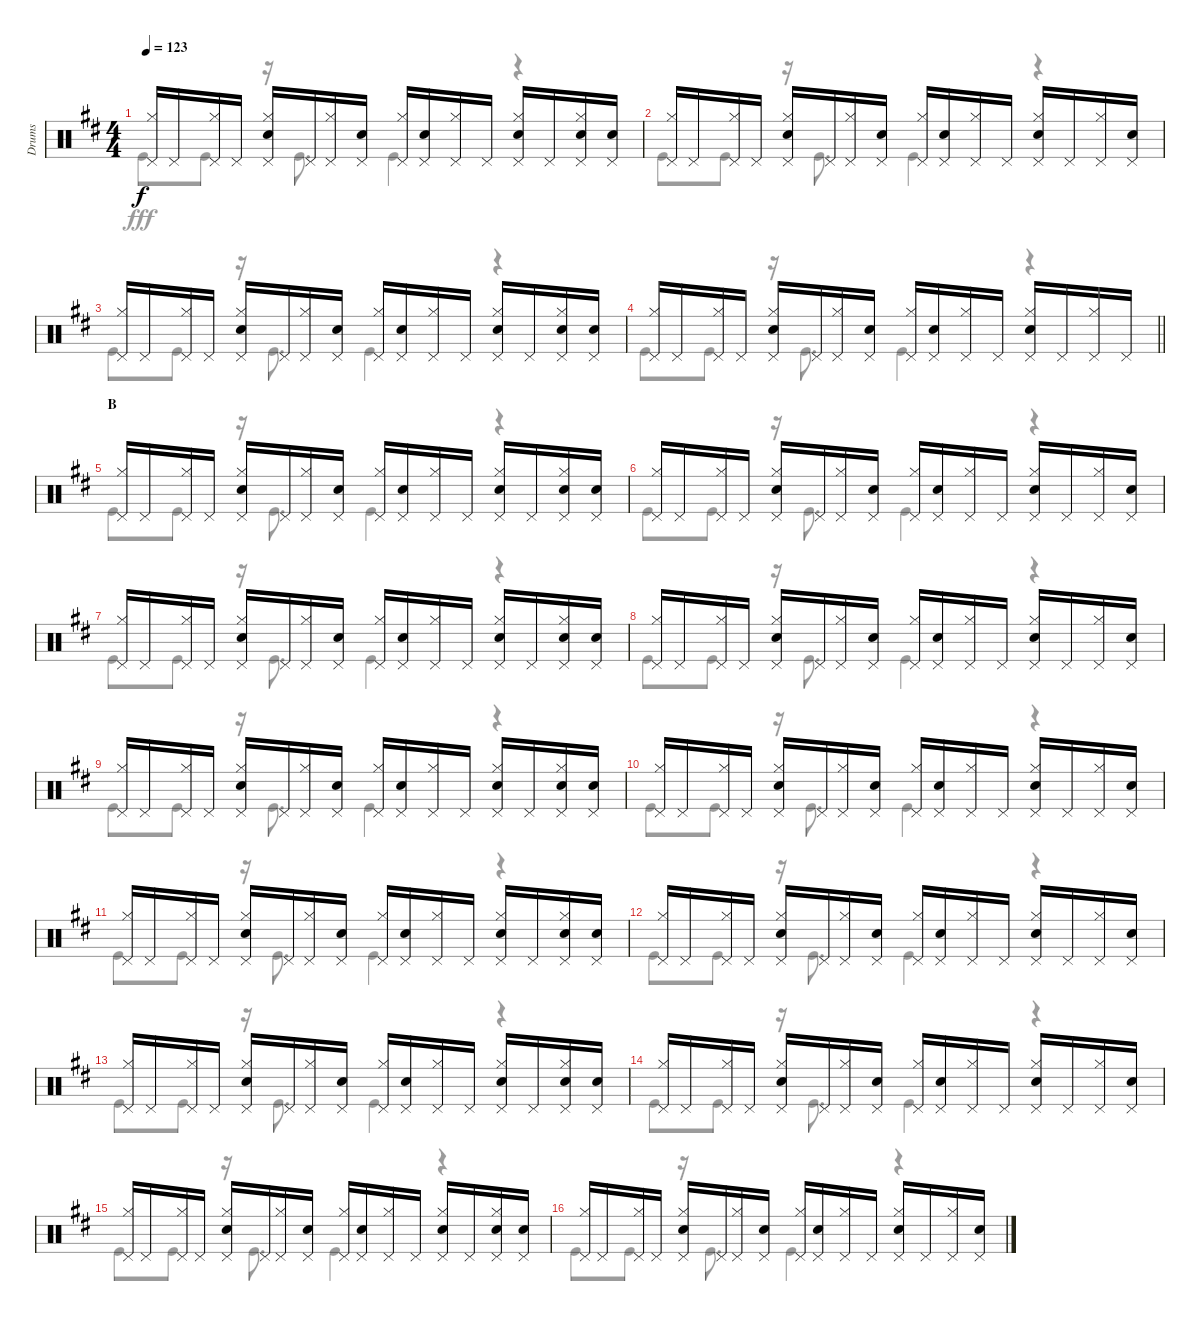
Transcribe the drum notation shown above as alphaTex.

\track ("Drums" "Drums") {instrument percussion}
\staff {score}
\articulation defaults
\voice
\ts (4 4)
\tempo 123
\clef neutral
\ks d
("Hi-Hat (closed)" "Pedal Hi-Hat (hit)").16{dy f} "Pedal Hi-Hat (hit)".16 ("Hi-Hat (closed)" "Pedal Hi-Hat (hit)").16 "Pedal Hi-Hat (hit)".16 ("Hi-Hat (closed)" "Snare (hit) 2" "Pedal Hi-Hat (hit)").16 "Pedal Hi-Hat (hit)".16 ("Hi-Hat (closed)" "Pedal Hi-Hat (hit)").16 ("Pedal Hi-Hat (hit)" "Snare (hit) 2").16 ("Hi-Hat (closed)" "Pedal Hi-Hat (hit)").16 ("Pedal Hi-Hat (hit)" "Snare (hit) 2").16 ("Hi-Hat (closed)" "Pedal Hi-Hat (hit)").16 "Pedal Hi-Hat (hit)".16 ("Hi-Hat (closed)" "Snare (hit) 2" "Pedal Hi-Hat (hit)").16 "Pedal Hi-Hat (hit)".16 ("Hi-Hat (closed)" "Snare (hit) 2" "Pedal Hi-Hat (hit)").16 ("Pedal Hi-Hat (hit)" "Snare (hit) 2").16 |
("Hi-Hat (closed)" "Pedal Hi-Hat (hit)").16 "Pedal Hi-Hat (hit)".16 ("Hi-Hat (closed)" "Pedal Hi-Hat (hit)").16 "Pedal Hi-Hat (hit)".16 ("Hi-Hat (closed)" "Snare (hit) 2" "Pedal Hi-Hat (hit)").16 "Pedal Hi-Hat (hit)".16 ("Hi-Hat (closed)" "Pedal Hi-Hat (hit)").16 ("Pedal Hi-Hat (hit)" "Snare (hit) 2").16 ("Hi-Hat (closed)" "Pedal Hi-Hat (hit)").16 ("Pedal Hi-Hat (hit)" "Snare (hit) 2").16 ("Hi-Hat (closed)" "Pedal Hi-Hat (hit)").16 "Pedal Hi-Hat (hit)".16 ("Hi-Hat (closed)" "Snare (hit) 2" "Pedal Hi-Hat (hit)").16 "Pedal Hi-Hat (hit)".16 ("Hi-Hat (closed)" "Pedal Hi-Hat (hit)").16 ("Pedal Hi-Hat (hit)" "Snare (hit) 2").16 |
("Hi-Hat (closed)" "Pedal Hi-Hat (hit)").16 "Pedal Hi-Hat (hit)".16 ("Hi-Hat (closed)" "Pedal Hi-Hat (hit)").16 "Pedal Hi-Hat (hit)".16 ("Hi-Hat (closed)" "Snare (hit) 2" "Pedal Hi-Hat (hit)").16 "Pedal Hi-Hat (hit)".16 ("Hi-Hat (closed)" "Pedal Hi-Hat (hit)").16 ("Pedal Hi-Hat (hit)" "Snare (hit) 2").16 ("Hi-Hat (closed)" "Pedal Hi-Hat (hit)").16 ("Pedal Hi-Hat (hit)" "Snare (hit) 2").16 ("Hi-Hat (closed)" "Pedal Hi-Hat (hit)").16 "Pedal Hi-Hat (hit)".16 ("Hi-Hat (closed)" "Snare (hit) 2" "Pedal Hi-Hat (hit)").16 "Pedal Hi-Hat (hit)".16 ("Hi-Hat (closed)" "Snare (hit) 2" "Pedal Hi-Hat (hit)").16 ("Pedal Hi-Hat (hit)" "Snare (hit) 2").16 |
\barLineRight lightlight
("Hi-Hat (closed)" "Pedal Hi-Hat (hit)").16 "Pedal Hi-Hat (hit)".16 ("Hi-Hat (closed)" "Pedal Hi-Hat (hit)").16 "Pedal Hi-Hat (hit)".16 ("Hi-Hat (closed)" "Snare (hit) 2" "Pedal Hi-Hat (hit)").16 "Pedal Hi-Hat (hit)".16 ("Hi-Hat (closed)" "Pedal Hi-Hat (hit)").16 ("Pedal Hi-Hat (hit)" "Snare (hit) 2").16 ("Hi-Hat (closed)" "Pedal Hi-Hat (hit)").16 ("Pedal Hi-Hat (hit)" "Snare (hit) 2").16 ("Hi-Hat (closed)" "Pedal Hi-Hat (hit)").16 "Pedal Hi-Hat (hit)".16 ("Hi-Hat (closed)" "Snare (hit) 2" "Pedal Hi-Hat (hit)").16 "Pedal Hi-Hat (hit)".16 ("Hi-Hat (closed)" "Pedal Hi-Hat (hit)").16 "Pedal Hi-Hat (hit)".16 |
\section ("" "B")
("Hi-Hat (closed)" "Pedal Hi-Hat (hit)").16 "Pedal Hi-Hat (hit)".16 ("Hi-Hat (closed)" "Pedal Hi-Hat (hit)").16 "Pedal Hi-Hat (hit)".16 ("Hi-Hat (closed)" "Snare (hit) 2" "Pedal Hi-Hat (hit)").16 "Pedal Hi-Hat (hit)".16 ("Hi-Hat (closed)" "Pedal Hi-Hat (hit)").16 ("Pedal Hi-Hat (hit)" "Snare (hit) 2").16 ("Hi-Hat (closed)" "Pedal Hi-Hat (hit)").16 ("Pedal Hi-Hat (hit)" "Snare (hit) 2").16 ("Hi-Hat (closed)" "Pedal Hi-Hat (hit)").16 "Pedal Hi-Hat (hit)".16 ("Hi-Hat (closed)" "Snare (hit) 2" "Pedal Hi-Hat (hit)").16 "Pedal Hi-Hat (hit)".16 ("Hi-Hat (closed)" "Snare (hit) 2" "Pedal Hi-Hat (hit)").16 ("Pedal Hi-Hat (hit)" "Snare (hit) 2").16 |
("Hi-Hat (closed)" "Pedal Hi-Hat (hit)").16 "Pedal Hi-Hat (hit)".16 ("Hi-Hat (closed)" "Pedal Hi-Hat (hit)").16 "Pedal Hi-Hat (hit)".16 ("Hi-Hat (closed)" "Snare (hit) 2" "Pedal Hi-Hat (hit)").16 "Pedal Hi-Hat (hit)".16 ("Hi-Hat (closed)" "Pedal Hi-Hat (hit)").16 ("Pedal Hi-Hat (hit)" "Snare (hit) 2").16 ("Hi-Hat (closed)" "Pedal Hi-Hat (hit)").16 ("Pedal Hi-Hat (hit)" "Snare (hit) 2").16 ("Hi-Hat (closed)" "Pedal Hi-Hat (hit)").16 "Pedal Hi-Hat (hit)".16 ("Hi-Hat (closed)" "Snare (hit) 2" "Pedal Hi-Hat (hit)").16 "Pedal Hi-Hat (hit)".16 ("Hi-Hat (closed)" "Pedal Hi-Hat (hit)").16 ("Pedal Hi-Hat (hit)" "Snare (hit) 2").16 |
("Hi-Hat (closed)" "Pedal Hi-Hat (hit)").16 "Pedal Hi-Hat (hit)".16 ("Hi-Hat (closed)" "Pedal Hi-Hat (hit)").16 "Pedal Hi-Hat (hit)".16 ("Hi-Hat (closed)" "Snare (hit) 2" "Pedal Hi-Hat (hit)").16 "Pedal Hi-Hat (hit)".16 ("Hi-Hat (closed)" "Pedal Hi-Hat (hit)").16 ("Pedal Hi-Hat (hit)" "Snare (hit) 2").16 ("Hi-Hat (closed)" "Pedal Hi-Hat (hit)").16 ("Pedal Hi-Hat (hit)" "Snare (hit) 2").16 ("Hi-Hat (closed)" "Pedal Hi-Hat (hit)").16 "Pedal Hi-Hat (hit)".16 ("Hi-Hat (closed)" "Snare (hit) 2" "Pedal Hi-Hat (hit)").16 "Pedal Hi-Hat (hit)".16 ("Hi-Hat (closed)" "Snare (hit) 2" "Pedal Hi-Hat (hit)").16 ("Pedal Hi-Hat (hit)" "Snare (hit) 2").16 |
("Hi-Hat (closed)" "Pedal Hi-Hat (hit)").16 "Pedal Hi-Hat (hit)".16 ("Hi-Hat (closed)" "Pedal Hi-Hat (hit)").16 "Pedal Hi-Hat (hit)".16 ("Hi-Hat (closed)" "Snare (hit) 2" "Pedal Hi-Hat (hit)").16 "Pedal Hi-Hat (hit)".16 ("Hi-Hat (closed)" "Pedal Hi-Hat (hit)").16 ("Pedal Hi-Hat (hit)" "Snare (hit) 2").16 ("Hi-Hat (closed)" "Pedal Hi-Hat (hit)").16 ("Pedal Hi-Hat (hit)" "Snare (hit) 2").16 ("Hi-Hat (closed)" "Pedal Hi-Hat (hit)").16 "Pedal Hi-Hat (hit)".16 ("Hi-Hat (closed)" "Snare (hit) 2" "Pedal Hi-Hat (hit)").16 "Pedal Hi-Hat (hit)".16 ("Hi-Hat (closed)" "Pedal Hi-Hat (hit)").16 ("Pedal Hi-Hat (hit)" "Snare (hit) 2").16 |
("Hi-Hat (closed)" "Pedal Hi-Hat (hit)").16 "Pedal Hi-Hat (hit)".16 ("Hi-Hat (closed)" "Pedal Hi-Hat (hit)").16 "Pedal Hi-Hat (hit)".16 ("Hi-Hat (closed)" "Snare (hit) 2" "Pedal Hi-Hat (hit)").16 "Pedal Hi-Hat (hit)".16 ("Hi-Hat (closed)" "Pedal Hi-Hat (hit)").16 ("Pedal Hi-Hat (hit)" "Snare (hit) 2").16 ("Hi-Hat (closed)" "Pedal Hi-Hat (hit)").16 ("Pedal Hi-Hat (hit)" "Snare (hit) 2").16 ("Hi-Hat (closed)" "Pedal Hi-Hat (hit)").16 "Pedal Hi-Hat (hit)".16 ("Hi-Hat (closed)" "Snare (hit) 2" "Pedal Hi-Hat (hit)").16 "Pedal Hi-Hat (hit)".16 ("Hi-Hat (closed)" "Snare (hit) 2" "Pedal Hi-Hat (hit)").16 ("Pedal Hi-Hat (hit)" "Snare (hit) 2").16 |
("Hi-Hat (closed)" "Pedal Hi-Hat (hit)").16 "Pedal Hi-Hat (hit)".16 ("Hi-Hat (closed)" "Pedal Hi-Hat (hit)").16 "Pedal Hi-Hat (hit)".16 ("Hi-Hat (closed)" "Snare (hit) 2" "Pedal Hi-Hat (hit)").16 "Pedal Hi-Hat (hit)".16 ("Hi-Hat (closed)" "Pedal Hi-Hat (hit)").16 ("Pedal Hi-Hat (hit)" "Snare (hit) 2").16 ("Hi-Hat (closed)" "Pedal Hi-Hat (hit)").16 ("Pedal Hi-Hat (hit)" "Snare (hit) 2").16 ("Hi-Hat (closed)" "Pedal Hi-Hat (hit)").16 "Pedal Hi-Hat (hit)".16 ("Hi-Hat (closed)" "Snare (hit) 2" "Pedal Hi-Hat (hit)").16 "Pedal Hi-Hat (hit)".16 ("Hi-Hat (closed)" "Pedal Hi-Hat (hit)").16 ("Pedal Hi-Hat (hit)" "Snare (hit) 2").16 |
("Hi-Hat (closed)" "Pedal Hi-Hat (hit)").16 "Pedal Hi-Hat (hit)".16 ("Hi-Hat (closed)" "Pedal Hi-Hat (hit)").16 "Pedal Hi-Hat (hit)".16 ("Hi-Hat (closed)" "Snare (hit) 2" "Pedal Hi-Hat (hit)").16 "Pedal Hi-Hat (hit)".16 ("Hi-Hat (closed)" "Pedal Hi-Hat (hit)").16 ("Pedal Hi-Hat (hit)" "Snare (hit) 2").16 ("Hi-Hat (closed)" "Pedal Hi-Hat (hit)").16 ("Pedal Hi-Hat (hit)" "Snare (hit) 2").16 ("Hi-Hat (closed)" "Pedal Hi-Hat (hit)").16 "Pedal Hi-Hat (hit)".16 ("Hi-Hat (closed)" "Snare (hit) 2" "Pedal Hi-Hat (hit)").16 "Pedal Hi-Hat (hit)".16 ("Hi-Hat (closed)" "Snare (hit) 2" "Pedal Hi-Hat (hit)").16 ("Pedal Hi-Hat (hit)" "Snare (hit) 2").16 |
("Hi-Hat (closed)" "Pedal Hi-Hat (hit)").16 "Pedal Hi-Hat (hit)".16 ("Hi-Hat (closed)" "Pedal Hi-Hat (hit)").16 "Pedal Hi-Hat (hit)".16 ("Hi-Hat (closed)" "Snare (hit) 2" "Pedal Hi-Hat (hit)").16 "Pedal Hi-Hat (hit)".16 ("Hi-Hat (closed)" "Pedal Hi-Hat (hit)").16 ("Pedal Hi-Hat (hit)" "Snare (hit) 2").16 ("Hi-Hat (closed)" "Pedal Hi-Hat (hit)").16 ("Pedal Hi-Hat (hit)" "Snare (hit) 2").16 ("Hi-Hat (closed)" "Pedal Hi-Hat (hit)").16 "Pedal Hi-Hat (hit)".16 ("Hi-Hat (closed)" "Snare (hit) 2" "Pedal Hi-Hat (hit)").16 "Pedal Hi-Hat (hit)".16 ("Hi-Hat (closed)" "Pedal Hi-Hat (hit)").16 ("Pedal Hi-Hat (hit)" "Snare (hit) 2").16 |
("Hi-Hat (closed)" "Pedal Hi-Hat (hit)").16 "Pedal Hi-Hat (hit)".16 ("Hi-Hat (closed)" "Pedal Hi-Hat (hit)").16 "Pedal Hi-Hat (hit)".16 ("Hi-Hat (closed)" "Snare (hit) 2" "Pedal Hi-Hat (hit)").16 "Pedal Hi-Hat (hit)".16 ("Hi-Hat (closed)" "Pedal Hi-Hat (hit)").16 ("Pedal Hi-Hat (hit)" "Snare (hit) 2").16 ("Hi-Hat (closed)" "Pedal Hi-Hat (hit)").16 ("Pedal Hi-Hat (hit)" "Snare (hit) 2").16 ("Hi-Hat (closed)" "Pedal Hi-Hat (hit)").16 "Pedal Hi-Hat (hit)".16 ("Hi-Hat (closed)" "Snare (hit) 2" "Pedal Hi-Hat (hit)").16 "Pedal Hi-Hat (hit)".16 ("Hi-Hat (closed)" "Snare (hit) 2" "Pedal Hi-Hat (hit)").16 ("Pedal Hi-Hat (hit)" "Snare (hit) 2").16 |
("Hi-Hat (closed)" "Pedal Hi-Hat (hit)").16 "Pedal Hi-Hat (hit)".16 ("Hi-Hat (closed)" "Pedal Hi-Hat (hit)").16 "Pedal Hi-Hat (hit)".16 ("Hi-Hat (closed)" "Snare (hit) 2" "Pedal Hi-Hat (hit)").16 "Pedal Hi-Hat (hit)".16 ("Hi-Hat (closed)" "Pedal Hi-Hat (hit)").16 ("Pedal Hi-Hat (hit)" "Snare (hit) 2").16 ("Hi-Hat (closed)" "Pedal Hi-Hat (hit)").16 ("Pedal Hi-Hat (hit)" "Snare (hit) 2").16 ("Hi-Hat (closed)" "Pedal Hi-Hat (hit)").16 "Pedal Hi-Hat (hit)".16 ("Hi-Hat (closed)" "Snare (hit) 2" "Pedal Hi-Hat (hit)").16 "Pedal Hi-Hat (hit)".16 ("Hi-Hat (closed)" "Pedal Hi-Hat (hit)").16 ("Pedal Hi-Hat (hit)" "Snare (hit) 2").16 |
("Hi-Hat (closed)" "Pedal Hi-Hat (hit)").16 "Pedal Hi-Hat (hit)".16 ("Hi-Hat (closed)" "Pedal Hi-Hat (hit)").16 "Pedal Hi-Hat (hit)".16 ("Hi-Hat (closed)" "Snare (hit) 2" "Pedal Hi-Hat (hit)").16 "Pedal Hi-Hat (hit)".16 ("Hi-Hat (closed)" "Pedal Hi-Hat (hit)").16 ("Pedal Hi-Hat (hit)" "Snare (hit) 2").16 ("Hi-Hat (closed)" "Pedal Hi-Hat (hit)").16 ("Pedal Hi-Hat (hit)" "Snare (hit) 2").16 ("Hi-Hat (closed)" "Pedal Hi-Hat (hit)").16 "Pedal Hi-Hat (hit)".16 ("Hi-Hat (closed)" "Snare (hit) 2" "Pedal Hi-Hat (hit)").16 "Pedal Hi-Hat (hit)".16 ("Hi-Hat (closed)" "Snare (hit) 2" "Pedal Hi-Hat (hit)").16 ("Pedal Hi-Hat (hit)" "Snare (hit) 2").16 |
("Hi-Hat (closed)" "Pedal Hi-Hat (hit)").16 "Pedal Hi-Hat (hit)".16 ("Hi-Hat (closed)" "Pedal Hi-Hat (hit)").16 "Pedal Hi-Hat (hit)".16 ("Hi-Hat (closed)" "Snare (hit) 2" "Pedal Hi-Hat (hit)").16 "Pedal Hi-Hat (hit)".16 ("Hi-Hat (closed)" "Pedal Hi-Hat (hit)").16 ("Pedal Hi-Hat (hit)" "Snare (hit) 2").16 ("Hi-Hat (closed)" "Pedal Hi-Hat (hit)").16 ("Pedal Hi-Hat (hit)" "Snare (hit) 2").16 ("Hi-Hat (closed)" "Pedal Hi-Hat (hit)").16 "Pedal Hi-Hat (hit)".16 ("Hi-Hat (closed)" "Snare (hit) 2" "Pedal Hi-Hat (hit)").16 "Pedal Hi-Hat (hit)".16 ("Hi-Hat (closed)" "Pedal Hi-Hat (hit)").16 ("Pedal Hi-Hat (hit)" "Snare (hit) 2").16
\voice
\clef neutral
\ottava regular
\simile none
\ks d "Kick (hit)".8{dy fff} "Kick (hit)".8
r.16 "Kick (hit)".8{d} "Kick (hit)".4 r.4 |
"Kick (hit)".8 "Kick (hit)".8 r.16 "Kick (hit)".8{d} "Kick (hit)".4 r.4 |
"Kick (hit)".8 "Kick (hit)".8 r.16 "Kick (hit)".8{d} "Kick (hit)".4 r.4 |
\barLineRight lightlight "Kick (hit)".8 "Kick (hit)".8
r.16 "Kick (hit)".8{d} "Kick (hit)".4 r.4 |
"Kick (hit)".8 "Kick (hit)".8 r.16 "Kick (hit)".8{d} "Kick (hit)".4 r.4 |
"Kick (hit)".8 "Kick (hit)".8 r.16 "Kick (hit)".8{d} "Kick (hit)".4 r.4 |
"Kick (hit)".8 "Kick (hit)".8 r.16 "Kick (hit)".8{d} "Kick (hit)".4 r.4 |
"Kick (hit)".8 "Kick (hit)".8 r.16 "Kick (hit)".8{d} "Kick (hit)".4 r.4 |
"Kick (hit)".8 "Kick (hit)".8 r.16 "Kick (hit)".8{d} "Kick (hit)".4 r.4 |
"Kick (hit)".8 "Kick (hit)".8 r.16 "Kick (hit)".8{d} "Kick (hit)".4 r.4 |
"Kick (hit)".8 "Kick (hit)".8 r.16 "Kick (hit)".8{d} "Kick (hit)".4 r.4 |
"Kick (hit)".8 "Kick (hit)".8 r.16 "Kick (hit)".8{d} "Kick (hit)".4 r.4 |
"Kick (hit)".8 "Kick (hit)".8 r.16 "Kick (hit)".8{d} "Kick (hit)".4 r.4 |
"Kick (hit)".8 "Kick (hit)".8 r.16 "Kick (hit)".8{d} "Kick (hit)".4 r.4 |
"Kick (hit)".8 "Kick (hit)".8 r.16 "Kick (hit)".8{d} "Kick (hit)".4 r.4 |
"Kick (hit)".8 "Kick (hit)".8 r.16 "Kick (hit)".8{d} "Kick (hit)".4 r.4
